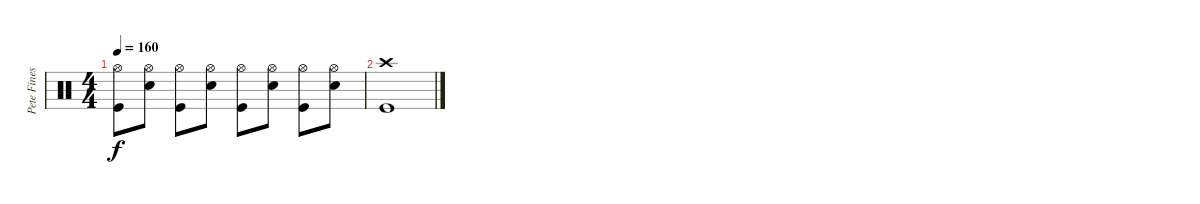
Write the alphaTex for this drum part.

\track ("Pete Finestone (Drums)" "Pete Fines") {instrument percussion}
\staff {score}
\articulation defaults
\ts (4 4)
\tempo 160
\clef neutral
\ks c
("Hi-Hat (open)" "Kick (hit)").8{dy f} ("Hi-Hat (open)" "Snare (hit) 2").8 ("Hi-Hat (open)" "Kick (hit)").8 ("Hi-Hat (open)" "Snare (hit) 2").8 ("Hi-Hat (open)" "Kick (hit)").8 ("Hi-Hat (open)" "Snare (hit) 2").8 ("Hi-Hat (open)" "Kick (hit)").8 ("Hi-Hat (open)" "Snare (hit) 2").8 |
("Crash high (hit)" "Kick (hit)").1
